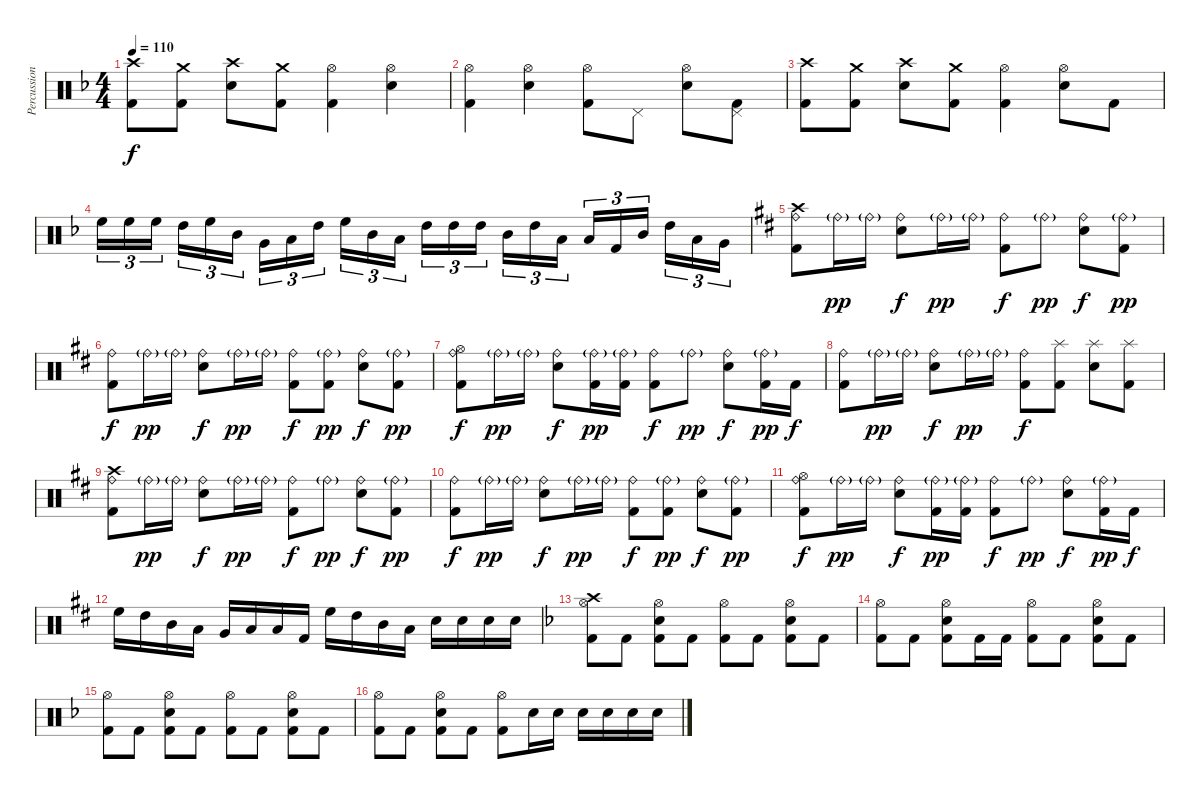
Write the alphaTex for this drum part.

\track ("Percussion" "Percussion") {instrument percussion}
\staff {score}
\articulation defaults
\ts (4 4)
\tempo 110
\clef neutral
\ks dminor
("Crash high (hit)" "Kick (hit) 2").8{dy f} ("Crash medium (hit)" "Kick (hit) 2").8 ("Crash high (hit)" "Electric Snare (hit)").8 ("Crash medium (hit)" "Kick (hit) 2").8 ("Hi-Hat (open)" "Kick (hit) 2").4 ("Hi-Hat (open)" "Electric Snare (hit)").4 |
("Hi-Hat (open)" "Kick (hit) 2").4 ("Hi-Hat (open)" "Electric Snare (hit)").4 ("Hi-Hat (open)" "Kick (hit) 2").8 "Pedal Hi-Hat (hit)".8 ("Hi-Hat (open)" "Electric Snare (hit)").8 ("Pedal Hi-Hat (hit)" "Kick (hit) 2").8 |
("Crash high (hit)" "Kick (hit) 2").8 ("Crash medium (hit)" "Kick (hit) 2").8 ("Crash high (hit)" "Electric Snare (hit)").8 ("Crash medium (hit)" "Kick (hit) 2").8 ("Hi-Hat (open)" "Kick (hit) 2").4 ("Hi-Hat (open)" "Electric Snare (hit)").8 "Kick (hit) 2".8 |
"High Floor Tom (hit)".16{tu (3 2)} "High Floor Tom (hit)".16{tu (3 2)} "High Floor Tom (hit)".16{tu (3 2)} "High Tom (hit)".16{tu (3 2)} "High Floor Tom (hit)".16{tu (3 2)} "Mid Tom (hit)".16{tu (3 2)} "Very Low Tom (hit)".16{tu (3 2)} "Low Floor Tom (hit)".16{tu (3 2)} "High Tom (hit)".16{tu (3 2)} "High Floor Tom (hit)".16{tu (3 2)} "Mid Tom (hit)".16{tu (3 2)} "Low Tom (hit)".16{tu (3 2)} "High Tom (hit)".16{tu (3 2)} "High Tom (hit)".16{tu (3 2)} "High Tom (hit)".16{tu (3 2)} "Mid Tom (hit)".16{tu (3 2)} "High Tom (hit)".16{tu (3 2)} "Low Tom (hit)".16{tu (3 2)} "Low Floor Tom (hit)".16{tu (3 2)} "Kick (hit) 2".16{tu (3 2)} "Mid Tom (hit)".16{tu (3 2)} "High Tom (hit)".16{tu (3 2)} "Low Tom (hit)".16{tu (3 2)} "Very Low Tom (hit)".16{tu (3 2)} |
\ks bminor
("Crash high (hit)" "Ride (bell)" "Kick (hit) 2").8 "Ride (bell)"{g}.16{dy pp} "Ride (bell)"{g}.16 ("Ride (bell)" "Electric Snare (hit)").8{dy f} "Ride (bell)"{g}.16{dy pp} "Ride (bell)"{g}.16 ("Ride (bell)" "Kick (hit) 2").8{dy f} "Ride (bell)"{g}.8{dy pp} ("Ride (bell)" "Electric Snare (hit)").8{dy f} ("Ride (bell)"{g} "Kick (hit) 2").8{dy pp} |
("Ride (bell)" "Kick (hit) 2").8{dy f} "Ride (bell)"{g}.16{dy pp} "Ride (bell)"{g}.16 ("Ride (bell)" "Electric Snare (hit)").8{dy f} "Ride (bell)"{g}.16{dy pp} "Ride (bell)"{g}.16 ("Ride (bell)" "Kick (hit) 2").8{dy f} ("Ride (bell)"{g} "Kick (hit) 2").8{dy pp} ("Ride (bell)" "Electric Snare (hit)").8{dy f} ("Ride (bell)"{g} "Kick (hit) 2").8{dy pp} |
("Hi-Hat (open)" "Ride (bell)" "Kick (hit) 2").8{dy f} "Ride (bell)"{g}.16{dy pp} "Ride (bell)"{g}.16 ("Ride (bell)" "Electric Snare (hit)").8{dy f} ("Ride (bell)"{g} "Kick (hit) 2").16{dy pp} ("Ride (bell)"{g} "Kick (hit) 2").16 ("Ride (bell)" "Kick (hit) 2").8{dy f} "Ride (bell)"{g}.8{dy pp} ("Ride (bell)" "Electric Snare (hit)").8{dy f} ("Ride (bell)"{g} "Kick (hit) 2").16{dy pp} "Kick (hit) 2".16{dy f} |
("Ride (bell)" "Kick (hit) 2").8 "Ride (bell)"{g}.16{dy pp} "Ride (bell)"{g}.16 ("Ride (bell)" "Electric Snare (hit)").8{dy f} "Ride (bell)"{g}.16{dy pp} "Ride (bell)"{g}.16 ("Ride (bell)" "Kick (hit) 2").8{dy f} ("Splash (hit)" "Kick (hit) 2").8 ("Splash (hit)" "Electric Snare (hit)").8 ("Splash (hit)" "Kick (hit) 2").8 |
("Crash high (hit)" "Ride (bell)" "Kick (hit) 2").8 "Ride (bell)"{g}.16{dy pp} "Ride (bell)"{g}.16 ("Ride (bell)" "Electric Snare (hit)").8{dy f} "Ride (bell)"{g}.16{dy pp} "Ride (bell)"{g}.16 ("Ride (bell)" "Kick (hit) 2").8{dy f} "Ride (bell)"{g}.8{dy pp} ("Ride (bell)" "Electric Snare (hit)").8{dy f} ("Ride (bell)"{g} "Kick (hit) 2").8{dy pp} |
("Ride (bell)" "Kick (hit) 2").8{dy f} "Ride (bell)"{g}.16{dy pp} "Ride (bell)"{g}.16 ("Ride (bell)" "Electric Snare (hit)").8{dy f} "Ride (bell)"{g}.16{dy pp} "Ride (bell)"{g}.16 ("Ride (bell)" "Kick (hit) 2").8{dy f} ("Ride (bell)"{g} "Kick (hit) 2").8{dy pp} ("Ride (bell)" "Electric Snare (hit)").8{dy f} ("Ride (bell)"{g} "Kick (hit) 2").8{dy pp} |
("Hi-Hat (open)" "Ride (bell)" "Kick (hit) 2").8{dy f} "Ride (bell)"{g}.16{dy pp} "Ride (bell)"{g}.16 ("Ride (bell)" "Electric Snare (hit)").8{dy f} ("Ride (bell)"{g} "Kick (hit) 2").16{dy pp} ("Ride (bell)"{g} "Kick (hit) 2").16 ("Ride (bell)" "Kick (hit) 2").8{dy f} "Ride (bell)"{g}.8{dy pp} ("Ride (bell)" "Electric Snare (hit)").8{dy f} ("Ride (bell)"{g} "Kick (hit) 2").16{dy pp} "Kick (hit) 2".16{dy f} |
"High Floor Tom (hit)".16 "High Tom (hit)".16 "Mid Tom (hit)".16 "Low Tom (hit)".16 "Very Low Tom (hit)".16 "Low Floor Tom (hit)".16 "Low Floor Tom (hit)".16 "Kick (hit) 2".16 "High Floor Tom (hit)".16 "High Tom (hit)".16 "Mid Tom (hit)".16 "Low Tom (hit)".16 "Electric Snare (hit)".16 "Electric Snare (hit)".16 "Electric Snare (hit)".16 "Electric Snare (hit)".16 |
\ks dminor
("Crash high (hit)" "Hi-Hat (open)" "Kick (hit) 2").8 "Kick (hit) 2".8 ("Hi-Hat (open)" "Electric Snare (hit)" "Kick (hit) 2").8 "Kick (hit) 2".8 ("Hi-Hat (open)" "Kick (hit) 2").8 "Kick (hit) 2".8 ("Hi-Hat (open)" "Electric Snare (hit)" "Kick (hit) 2").8 "Kick (hit) 2".8 |
("Hi-Hat (open)" "Kick (hit) 2").8 "Kick (hit) 2".8 ("Hi-Hat (open)" "Electric Snare (hit)" "Kick (hit) 2").8 "Kick (hit) 2".16 "Kick (hit) 2".16 ("Hi-Hat (open)" "Kick (hit) 2").8 "Kick (hit) 2".8 ("Hi-Hat (open)" "Electric Snare (hit)" "Kick (hit) 2").8 "Kick (hit) 2".8 |
("Hi-Hat (open)" "Kick (hit) 2").8 "Kick (hit) 2".8 ("Hi-Hat (open)" "Electric Snare (hit)" "Kick (hit) 2").8 "Kick (hit) 2".8 ("Hi-Hat (open)" "Kick (hit) 2").8 "Kick (hit) 2".8 ("Hi-Hat (open)" "Electric Snare (hit)" "Kick (hit) 2").8 "Kick (hit) 2".8 |
("Hi-Hat (open)" "Kick (hit) 2").8 "Kick (hit) 2".8 ("Hi-Hat (open)" "Electric Snare (hit)" "Kick (hit) 2").8 "Kick (hit) 2".8 ("Hi-Hat (open)" "Kick (hit) 2").8 "Electric Snare (hit)".16 "Electric Snare (hit)".16 "Electric Snare (hit)".16 "Electric Snare (hit)".16 "Electric Snare (hit)".16 "Electric Snare (hit)".16
